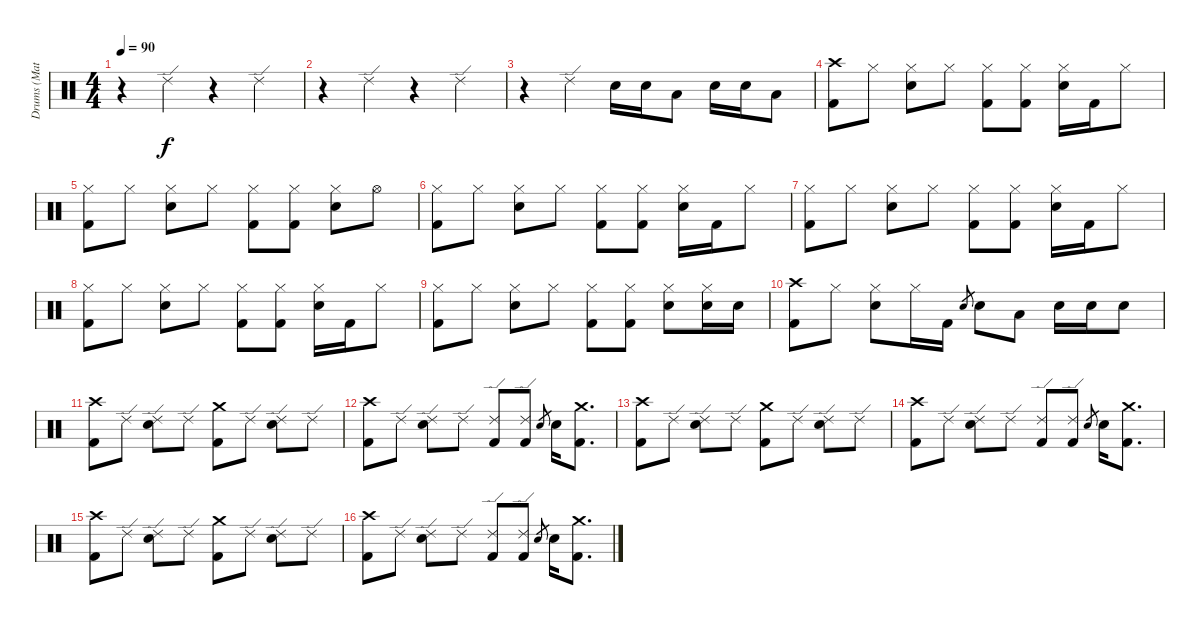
\track ("Drums (Matt)" "Drums (Mat") {instrument percussion}
\staff {score}
\articulation defaults
\ts (4 4)
\tempo 90
\clef neutral
\ks c
r.4{dy f} "Ride (edge) 2".4 r.4 "Ride (edge) 2".4 |
r.4 "Ride (edge) 2".4 r.4 "Ride (edge) 2".4 |
r.4 "Ride (edge) 2".4 "Snare (hit) 2".16 "Snare (hit) 2".16 "Low Tom (hit)".8 "Snare (hit) 2".16 "Snare (hit) 2".16 "Low Tom (hit)".8 |
("Crash high (hit)" "Kick (hit) 2").8 "Hi-Hat (closed)".8 ("Hi-Hat (closed)" "Snare (hit) 2").8 "Hi-Hat (closed)".8 ("Hi-Hat (closed)" "Kick (hit) 2").8 ("Hi-Hat (closed)" "Kick (hit) 2").8 ("Hi-Hat (closed)" "Snare (hit) 2").16 "Kick (hit) 2".16 "Hi-Hat (closed)".8 |
("Hi-Hat (closed)" "Kick (hit) 2").8 "Hi-Hat (closed)".8 ("Hi-Hat (closed)" "Snare (hit) 2").8 "Hi-Hat (closed)".8 ("Hi-Hat (closed)" "Kick (hit) 2").8 ("Hi-Hat (closed)" "Kick (hit) 2").8 ("Hi-Hat (closed)" "Snare (hit) 2").8 "Hi-Hat (open)".8 |
("Hi-Hat (closed)" "Kick (hit) 2").8 "Hi-Hat (closed)".8 ("Hi-Hat (closed)" "Snare (hit) 2").8 "Hi-Hat (closed)".8 ("Hi-Hat (closed)" "Kick (hit) 2").8 ("Hi-Hat (closed)" "Kick (hit) 2").8 ("Hi-Hat (closed)" "Snare (hit) 2").16 "Kick (hit) 2".16 "Hi-Hat (closed)".8 |
("Hi-Hat (closed)" "Kick (hit) 2").8 "Hi-Hat (closed)".8 ("Hi-Hat (closed)" "Snare (hit) 2").8 "Hi-Hat (closed)".8 ("Hi-Hat (closed)" "Kick (hit) 2").8 ("Hi-Hat (closed)" "Kick (hit) 2").8 ("Hi-Hat (closed)" "Snare (hit) 2").16 "Kick (hit) 2".16 "Hi-Hat (closed)".8 |
("Hi-Hat (closed)" "Kick (hit) 2").8 "Hi-Hat (closed)".8 ("Hi-Hat (closed)" "Snare (hit) 2").8 "Hi-Hat (closed)".8 ("Hi-Hat (closed)" "Kick (hit) 2").8 ("Hi-Hat (closed)" "Kick (hit) 2").8 ("Hi-Hat (closed)" "Snare (hit) 2").16 "Kick (hit) 2".16 "Hi-Hat (closed)".8 |
("Hi-Hat (closed)" "Kick (hit) 2").8 "Hi-Hat (closed)".8 ("Hi-Hat (closed)" "Snare (hit) 2").8 "Hi-Hat (closed)".8 ("Hi-Hat (closed)" "Kick (hit) 2").8 ("Hi-Hat (closed)" "Kick (hit) 2").8 ("Hi-Hat (closed)" "Snare (hit) 2").8 ("Hi-Hat (closed)" "Snare (hit) 2").16 "Snare (hit) 2".16 |
("Crash high (hit)" "Kick (hit) 2").8 "Hi-Hat (closed)".8 ("Hi-Hat (closed)" "Snare (hit) 2").8 "Hi-Hat (closed)".16 "Kick (hit) 2".16 "Snare (hit) 2".8{gr} "Snare (hit) 2".8 "Low Tom (hit)".8 "Snare (hit) 2".16 "Snare (hit) 2".16 "Snare (hit) 2".8 |
("Crash high (hit)" "Kick (hit) 2").8 "Ride (edge) 2".8 ("Ride (edge) 2" "Snare (hit) 2").8 "Ride (edge) 2".8 ("Crash medium (hit)" "Kick (hit) 2").8 "Ride (edge) 2".8 ("Ride (edge) 2" "Snare (hit) 2").8 "Ride (edge) 2".8 |
("Crash high (hit)" "Kick (hit) 2").8 "Ride (edge) 2".8 ("Ride (edge) 2" "Snare (hit) 2").8 "Ride (edge) 2".8 ("Ride (edge) 2" "Kick (hit) 2").8 ("Ride (edge) 2" "Kick (hit) 2").8 "Snare (hit) 2".8{gr} "Snare (hit) 2".16 ("Crash medium (hit)" "Kick (hit) 2").8{d} |
("Crash high (hit)" "Kick (hit) 2").8 "Ride (edge) 2".8 ("Ride (edge) 2" "Snare (hit) 2").8 "Ride (edge) 2".8 ("Crash medium (hit)" "Kick (hit) 2").8 "Ride (edge) 2".8 ("Ride (edge) 2" "Snare (hit) 2").8 "Ride (edge) 2".8 |
("Crash high (hit)" "Kick (hit) 2").8 "Ride (edge) 2".8 ("Ride (edge) 2" "Snare (hit) 2").8 "Ride (edge) 2".8 ("Ride (edge) 2" "Kick (hit) 2").8 ("Ride (edge) 2" "Kick (hit) 2").8 "Snare (hit) 2".8{gr} "Snare (hit) 2".16 ("Crash medium (hit)" "Kick (hit) 2").8{d} |
("Crash high (hit)" "Kick (hit) 2").8 "Ride (edge) 2".8 ("Ride (edge) 2" "Snare (hit) 2").8 "Ride (edge) 2".8 ("Crash medium (hit)" "Kick (hit) 2").8 "Ride (edge) 2".8 ("Ride (edge) 2" "Snare (hit) 2").8 "Ride (edge) 2".8 |
("Crash high (hit)" "Kick (hit) 2").8 "Ride (edge) 2".8 ("Ride (edge) 2" "Snare (hit) 2").8 "Ride (edge) 2".8 ("Ride (edge) 2" "Kick (hit) 2").8 ("Ride (edge) 2" "Kick (hit) 2").8 "Snare (hit) 2".8{gr} "Snare (hit) 2".16 ("Crash medium (hit)" "Kick (hit) 2").8{d}
